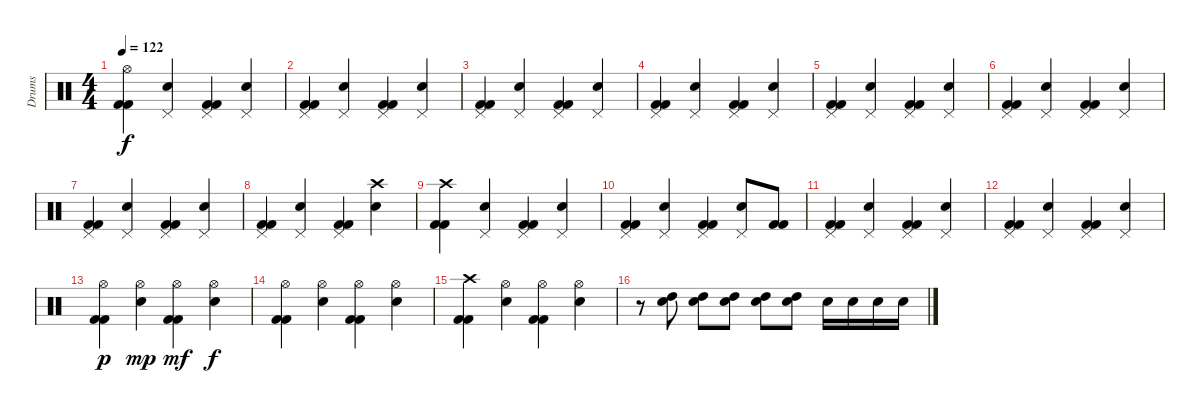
\track ("Drums" "Drums") {instrument percussion}
\staff {score}
\articulation defaults
\ts (4 4)
\tempo 122
\clef neutral
\ks c
("Hi-Hat (open)" "Kick (hit) 2" "Kick (hit) 2").4{dy f} ("Pedal Hi-Hat (hit)" "Snare (hit) 2").4 ("Pedal Hi-Hat (hit)" "Kick (hit) 2" "Kick (hit) 2").4 ("Pedal Hi-Hat (hit)" "Snare (hit) 2").4 |
("Pedal Hi-Hat (hit)" "Kick (hit) 2" "Kick (hit) 2").4 ("Pedal Hi-Hat (hit)" "Snare (hit) 2").4 ("Pedal Hi-Hat (hit)" "Kick (hit) 2" "Kick (hit) 2").4 ("Pedal Hi-Hat (hit)" "Snare (hit) 2").4 |
("Pedal Hi-Hat (hit)" "Kick (hit) 2" "Kick (hit) 2").4 ("Pedal Hi-Hat (hit)" "Snare (hit) 2").4 ("Pedal Hi-Hat (hit)" "Kick (hit) 2" "Kick (hit) 2").4 ("Pedal Hi-Hat (hit)" "Snare (hit) 2").4 |
("Pedal Hi-Hat (hit)" "Kick (hit) 2" "Kick (hit) 2").4 ("Pedal Hi-Hat (hit)" "Snare (hit) 2").4 ("Pedal Hi-Hat (hit)" "Kick (hit) 2" "Kick (hit) 2").4 ("Pedal Hi-Hat (hit)" "Snare (hit) 2").4 |
("Pedal Hi-Hat (hit)" "Kick (hit) 2" "Kick (hit) 2").4 ("Pedal Hi-Hat (hit)" "Snare (hit) 2").4 ("Pedal Hi-Hat (hit)" "Kick (hit) 2" "Kick (hit) 2").4 ("Pedal Hi-Hat (hit)" "Snare (hit) 2").4 |
("Pedal Hi-Hat (hit)" "Kick (hit) 2" "Kick (hit) 2").4 ("Pedal Hi-Hat (hit)" "Snare (hit) 2").4 ("Pedal Hi-Hat (hit)" "Kick (hit) 2" "Kick (hit) 2").4 ("Pedal Hi-Hat (hit)" "Snare (hit) 2").4 |
("Pedal Hi-Hat (hit)" "Kick (hit) 2" "Kick (hit) 2").4 ("Pedal Hi-Hat (hit)" "Snare (hit) 2").4 ("Pedal Hi-Hat (hit)" "Kick (hit) 2" "Kick (hit) 2").4 ("Pedal Hi-Hat (hit)" "Snare (hit) 2").4 |
("Pedal Hi-Hat (hit)" "Kick (hit) 2" "Kick (hit) 2").4 ("Pedal Hi-Hat (hit)" "Snare (hit) 2").4 ("Pedal Hi-Hat (hit)" "Kick (hit) 2" "Kick (hit) 2").4 ("Crash high (hit)" "Snare (hit) 2").4 |
("Crash high (hit)" "Kick (hit) 2" "Kick (hit) 2").4 ("Pedal Hi-Hat (hit)" "Snare (hit) 2").4 ("Pedal Hi-Hat (hit)" "Kick (hit) 2" "Kick (hit) 2").4 ("Pedal Hi-Hat (hit)" "Snare (hit) 2").4 |
("Pedal Hi-Hat (hit)" "Kick (hit) 2" "Kick (hit) 2").4 ("Pedal Hi-Hat (hit)" "Snare (hit) 2").4 ("Pedal Hi-Hat (hit)" "Kick (hit) 2" "Kick (hit) 2").4 ("Pedal Hi-Hat (hit)" "Snare (hit) 2").8 ("Kick (hit) 2" "Kick (hit) 2").8 |
("Pedal Hi-Hat (hit)" "Kick (hit) 2" "Kick (hit) 2").4 ("Pedal Hi-Hat (hit)" "Snare (hit) 2").4 ("Pedal Hi-Hat (hit)" "Kick (hit) 2" "Kick (hit) 2").4 ("Pedal Hi-Hat (hit)" "Snare (hit) 2").4 |
("Pedal Hi-Hat (hit)" "Kick (hit) 2" "Kick (hit) 2").4 ("Pedal Hi-Hat (hit)" "Snare (hit) 2").4 ("Pedal Hi-Hat (hit)" "Kick (hit) 2" "Kick (hit) 2").4 ("Pedal Hi-Hat (hit)" "Snare (hit) 2").4 |
("Hi-Hat (open)" "Kick (hit) 2" "Kick (hit) 2").4{dy p} ("Hi-Hat (open)" "Snare (hit) 2").4{dy mp} ("Hi-Hat (open)" "Kick (hit) 2" "Kick (hit) 2").4{dy mf} ("Hi-Hat (open)" "Snare (hit) 2").4{dy f} |
("Hi-Hat (open)" "Kick (hit) 2" "Kick (hit) 2").4 ("Hi-Hat (open)" "Snare (hit) 2").4 ("Hi-Hat (open)" "Kick (hit) 2" "Kick (hit) 2").4 ("Hi-Hat (open)" "Snare (hit) 2").4 |
("Crash high (hit)" "Kick (hit) 2" "Kick (hit) 2").4 ("Hi-Hat (open)" "Snare (hit) 2").4 ("Hi-Hat (open)" "Kick (hit) 2" "Kick (hit) 2").4 ("Hi-Hat (open)" "Snare (hit) 2").4 |
r.8 ("High Tom (hit)" "Snare (hit) 2").8 ("High Tom (hit)" "Snare (hit) 2").8 ("High Tom (hit)" "Snare (hit) 2").8 ("High Tom (hit)" "Snare (hit) 2").8 ("High Tom (hit)" "Snare (hit) 2").8 "Snare (hit) 2".16 "Snare (hit) 2".16 "Snare (hit) 2".16 "Snare (hit) 2".16
